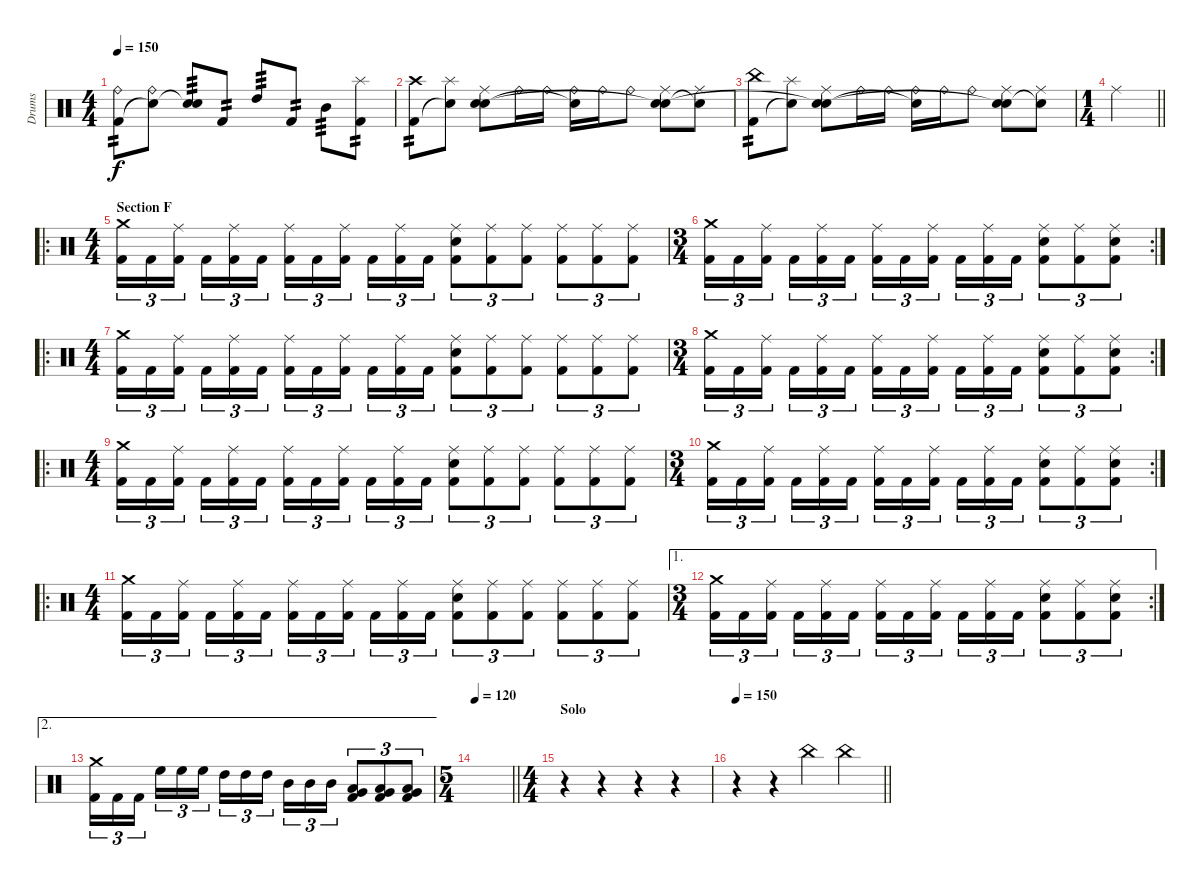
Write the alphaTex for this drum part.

\track ("Drums" "Drums") {instrument percussion}
\staff {score}
\articulation defaults
\ts (4 4)
\tempo 150
\clef neutral
\ks c
("Ride (bell)" "Kick (hit) 2").8{tp 2 dy f} ("Ride (bell)" "Snare (hit)"{t}).8 ("Electric Snare (hit)" "Snare (hit)"{t}).8{tp 3} "Kick (hit) 2".8{tp 2} "High Tom (hit)".8{tp 3} "Kick (hit) 2".8{tp 2} "Mid Tom (hit)".8{tp 3} ("Splash (hit)" "Kick (hit) 2").8{tp 2} |
("Crash high (hit)" "Kick (hit) 2").8{tp 2} ("Splash (hit)" "Snare (hit)"{t}).8 ("Ride (middle)" "Electric Snare (hit)" "Snare (hit)"{t}).8 "Ride (bell)".16 "Ride (bell)".16 ("Ride (bell)" "Snare (hit)"{t}).16 "Ride (bell)".16 "Ride (bell)".8 ("Ride (middle)" "Electric Snare (hit)" "Snare (hit)"{t}).8 ("Ride (middle)" "Snare (hit)"{t}).8 |
("China (hit)" "Kick (hit) 2").8{tp 2} ("Splash (hit)" "Snare (hit)"{t}).8 ("Ride (middle)" "Electric Snare (hit)" "Snare (hit)"{t}).8 "Ride (bell)".16 "Ride (bell)".16 ("Ride (bell)" "Snare (hit)"{t}).16 "Ride (bell)".16 "Ride (bell)".8 ("Ride (middle)" "Electric Snare (hit)" "Snare (hit)"{t}).8 ("Ride (middle)" "Snare (hit)"{t}).8 |
\ts (1 4)
\barLineRight lightlight "Ride (middle)".4
|
\ro
\ts (4 4)
\section ("" "Section F")
("Crash medium (hit)" "Kick (hit) 2").16{tu (3 2)} "Kick (hit) 2".16{tu (3 2)} ("Ride (middle)" "Kick (hit) 2").16{tu (3 2) beam splitsecondary} "Kick (hit) 2".16{tu (3 2)} ("Ride (middle)" "Kick (hit) 2").16{tu (3 2)} "Kick (hit) 2".16{tu (3 2)} ("Ride (middle)" "Kick (hit) 2").16{tu (3 2)} "Kick (hit) 2".16{tu (3 2)} ("Ride (middle)" "Kick (hit) 2").16{tu (3 2) beam splitsecondary} "Kick (hit) 2".16{tu (3 2)} ("Ride (middle)" "Kick (hit) 2").16{tu (3 2)} "Kick (hit) 2".16{tu (3 2)} ("Ride (middle)" "Electric Snare (hit)" "Kick (hit) 2").8{tu (3 2)} ("Ride (middle)" "Kick (hit) 2").8{tu (3 2)} ("Ride (middle)" "Kick (hit) 2").8{tu (3 2)} ("Ride (middle)" "Kick (hit) 2").8{tu (3 2)} ("Ride (middle)" "Kick (hit) 2").8{tu (3 2)} ("Ride (middle)" "Kick (hit) 2").8{tu (3 2)} |
\rc 2
\ts (3 4)
("Crash medium (hit)" "Kick (hit) 2").16{tu (3 2)} "Kick (hit) 2".16{tu (3 2)} ("Ride (middle)" "Kick (hit) 2").16{tu (3 2) beam splitsecondary} "Kick (hit) 2".16{tu (3 2)} ("Ride (middle)" "Kick (hit) 2").16{tu (3 2)} "Kick (hit) 2".16{tu (3 2)} ("Ride (middle)" "Kick (hit) 2").16{tu (3 2)} "Kick (hit) 2".16{tu (3 2)} ("Ride (middle)" "Kick (hit) 2").16{tu (3 2) beam splitsecondary} "Kick (hit) 2".16{tu (3 2)} ("Ride (middle)" "Kick (hit) 2").16{tu (3 2)} "Kick (hit) 2".16{tu (3 2)} ("Ride (middle)" "Electric Snare (hit)" "Kick (hit) 2").8{tu (3 2)} ("Ride (middle)" "Kick (hit) 2").8{tu (3 2)} ("Ride (middle)" "Electric Snare (hit)" "Kick (hit) 2").8{tu (3 2)} |
\ro
\ts (4 4)
("Crash medium (hit)" "Kick (hit) 2").16{tu (3 2)} "Kick (hit) 2".16{tu (3 2)} ("Ride (middle)" "Kick (hit) 2").16{tu (3 2) beam splitsecondary} "Kick (hit) 2".16{tu (3 2)} ("Ride (middle)" "Kick (hit) 2").16{tu (3 2)} "Kick (hit) 2".16{tu (3 2)} ("Ride (middle)" "Kick (hit) 2").16{tu (3 2)} "Kick (hit) 2".16{tu (3 2)} ("Ride (middle)" "Kick (hit) 2").16{tu (3 2) beam splitsecondary} "Kick (hit) 2".16{tu (3 2)} ("Ride (middle)" "Kick (hit) 2").16{tu (3 2)} "Kick (hit) 2".16{tu (3 2)} ("Ride (middle)" "Electric Snare (hit)" "Kick (hit) 2").8{tu (3 2)} ("Ride (middle)" "Kick (hit) 2").8{tu (3 2)} ("Ride (middle)" "Kick (hit) 2").8{tu (3 2)} ("Ride (middle)" "Kick (hit) 2").8{tu (3 2)} ("Ride (middle)" "Kick (hit) 2").8{tu (3 2)} ("Ride (middle)" "Kick (hit) 2").8{tu (3 2)} |
\rc 2
\ts (3 4)
("Crash medium (hit)" "Kick (hit) 2").16{tu (3 2)} "Kick (hit) 2".16{tu (3 2)} ("Ride (middle)" "Kick (hit) 2").16{tu (3 2) beam splitsecondary} "Kick (hit) 2".16{tu (3 2)} ("Ride (middle)" "Kick (hit) 2").16{tu (3 2)} "Kick (hit) 2".16{tu (3 2)} ("Ride (middle)" "Kick (hit) 2").16{tu (3 2)} "Kick (hit) 2".16{tu (3 2)} ("Ride (middle)" "Kick (hit) 2").16{tu (3 2) beam splitsecondary} "Kick (hit) 2".16{tu (3 2)} ("Ride (middle)" "Kick (hit) 2").16{tu (3 2)} "Kick (hit) 2".16{tu (3 2)} ("Ride (middle)" "Electric Snare (hit)" "Kick (hit) 2").8{tu (3 2)} ("Ride (middle)" "Kick (hit) 2").8{tu (3 2)} ("Ride (middle)" "Electric Snare (hit)" "Kick (hit) 2").8{tu (3 2)} |
\ro
\ts (4 4)
("Crash medium (hit)" "Kick (hit) 2").16{tu (3 2)} "Kick (hit) 2".16{tu (3 2)} ("Ride (middle)" "Kick (hit) 2").16{tu (3 2) beam splitsecondary} "Kick (hit) 2".16{tu (3 2)} ("Ride (middle)" "Kick (hit) 2").16{tu (3 2)} "Kick (hit) 2".16{tu (3 2)} ("Ride (middle)" "Kick (hit) 2").16{tu (3 2)} "Kick (hit) 2".16{tu (3 2)} ("Ride (middle)" "Kick (hit) 2").16{tu (3 2) beam splitsecondary} "Kick (hit) 2".16{tu (3 2)} ("Ride (middle)" "Kick (hit) 2").16{tu (3 2)} "Kick (hit) 2".16{tu (3 2)} ("Ride (middle)" "Electric Snare (hit)" "Kick (hit) 2").8{tu (3 2)} ("Ride (middle)" "Kick (hit) 2").8{tu (3 2)} ("Ride (middle)" "Kick (hit) 2").8{tu (3 2)} ("Ride (middle)" "Kick (hit) 2").8{tu (3 2)} ("Ride (middle)" "Kick (hit) 2").8{tu (3 2)} ("Ride (middle)" "Kick (hit) 2").8{tu (3 2)} |
\rc 2
\ts (3 4)
("Crash medium (hit)" "Kick (hit) 2").16{tu (3 2)} "Kick (hit) 2".16{tu (3 2)} ("Ride (middle)" "Kick (hit) 2").16{tu (3 2) beam splitsecondary} "Kick (hit) 2".16{tu (3 2)} ("Ride (middle)" "Kick (hit) 2").16{tu (3 2)} "Kick (hit) 2".16{tu (3 2)} ("Ride (middle)" "Kick (hit) 2").16{tu (3 2)} "Kick (hit) 2".16{tu (3 2)} ("Ride (middle)" "Kick (hit) 2").16{tu (3 2) beam splitsecondary} "Kick (hit) 2".16{tu (3 2)} ("Ride (middle)" "Kick (hit) 2").16{tu (3 2)} "Kick (hit) 2".16{tu (3 2)} ("Ride (middle)" "Electric Snare (hit)" "Kick (hit) 2").8{tu (3 2)} ("Ride (middle)" "Kick (hit) 2").8{tu (3 2)} ("Ride (middle)" "Electric Snare (hit)" "Kick (hit) 2").8{tu (3 2)} |
\ro
\ts (4 4)
("Crash medium (hit)" "Kick (hit) 2").16{tu (3 2)} "Kick (hit) 2".16{tu (3 2)} ("Ride (middle)" "Kick (hit) 2").16{tu (3 2) beam splitsecondary} "Kick (hit) 2".16{tu (3 2)} ("Ride (middle)" "Kick (hit) 2").16{tu (3 2)} "Kick (hit) 2".16{tu (3 2)} ("Ride (middle)" "Kick (hit) 2").16{tu (3 2)} "Kick (hit) 2".16{tu (3 2)} ("Ride (middle)" "Kick (hit) 2").16{tu (3 2) beam splitsecondary} "Kick (hit) 2".16{tu (3 2)} ("Ride (middle)" "Kick (hit) 2").16{tu (3 2)} "Kick (hit) 2".16{tu (3 2)} ("Ride (middle)" "Electric Snare (hit)" "Kick (hit) 2").8{tu (3 2)} ("Ride (middle)" "Kick (hit) 2").8{tu (3 2)} ("Ride (middle)" "Kick (hit) 2").8{tu (3 2)} ("Ride (middle)" "Kick (hit) 2").8{tu (3 2)} ("Ride (middle)" "Kick (hit) 2").8{tu (3 2)} ("Ride (middle)" "Kick (hit) 2").8{tu (3 2)} |
\ae 1
\rc 2
\ts (3 4)
("Crash medium (hit)" "Kick (hit) 2").16{tu (3 2)} "Kick (hit) 2".16{tu (3 2)} ("Ride (middle)" "Kick (hit) 2").16{tu (3 2) beam splitsecondary} "Kick (hit) 2".16{tu (3 2)} ("Ride (middle)" "Kick (hit) 2").16{tu (3 2)} "Kick (hit) 2".16{tu (3 2)} ("Ride (middle)" "Kick (hit) 2").16{tu (3 2)} "Kick (hit) 2".16{tu (3 2)} ("Ride (middle)" "Kick (hit) 2").16{tu (3 2) beam splitsecondary} "Kick (hit) 2".16{tu (3 2)} ("Ride (middle)" "Kick (hit) 2").16{tu (3 2)} "Kick (hit) 2".16{tu (3 2)} ("Ride (middle)" "Electric Snare (hit)" "Kick (hit) 2").8{tu (3 2)} ("Ride (middle)" "Kick (hit) 2").8{tu (3 2)} ("Ride (middle)" "Electric Snare (hit)" "Kick (hit) 2").8{tu (3 2)} |
\ae 2
("Crash medium (hit)" "Kick (hit) 2").16{tu (3 2)} "Kick (hit) 2".16{tu (3 2)} "Kick (hit) 2".16{tu (3 2) beam splitsecondary} "High Floor Tom (hit)".16{tu (3 2)} "High Floor Tom (hit)".16{tu (3 2)} "High Floor Tom (hit)".16{tu (3 2)} "High Tom (hit)".16{tu (3 2)} "High Tom (hit)".16{tu (3 2)} "High Tom (hit)".16{tu (3 2) beam splitsecondary} "Mid Tom (hit)".16{tu (3 2)} "Mid Tom (hit)".16{tu (3 2)} "Mid Tom (hit)".16{tu (3 2)} ("Low Tom (hit)" "Very Low Tom (hit)" "Kick (hit) 2").8{tu (3 2)} ("Low Tom (hit)" "Very Low Tom (hit)" "Kick (hit) 2").8{tu (3 2)} ("Low Tom (hit)" "Very Low Tom (hit)" "Kick (hit) 2").8{tu (3 2)} |
\ts (5 4)
\tempo 120
\barLineRight lightlight
|
\ts (4 4)
\section ("" "Solo")
r.4 r.4 r.4 r.4 |
\tempo 150
\barLineRight lightlight
r.4 r.4 "China (hit)".4 "China (hit)".4
